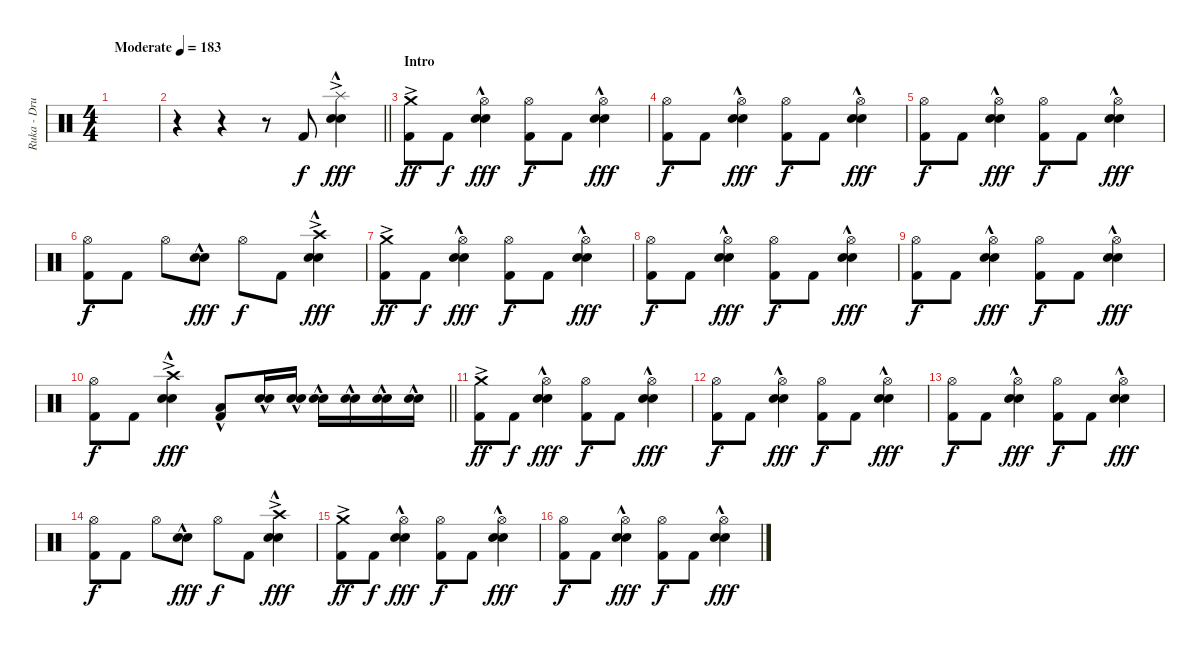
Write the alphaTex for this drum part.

\track ("Ruka - Drums" "Ruka - Dru") {instrument percussion}
\staff {score}
\articulation defaults
\ts (4 4)
\tempo (183 "Moderate")
\clef neutral
\ks c
|
\barLineRight lightlight
r.4 r.4 r.8 "Kick (hit) 2".8 ("Splash (hit)"{ac} "Electric Snare (hit)"{hac} "Snare (hit) 2"{hac}).4{dy fff} |
\section ("" "Intro")
("Crash medium (hit)"{ac} "Kick (hit) 2").8{dy ff} "Kick (hit) 2".8{dy f} ("Hi-Hat (open)" "Electric Snare (hit)"{hac} "Snare (hit) 2"{hac}).4{dy fff} ("Hi-Hat (open)" "Kick (hit) 2").8{dy f} "Kick (hit) 2".8 ("Hi-Hat (open)" "Electric Snare (hit)"{hac} "Snare (hit) 2"{hac}).4{dy fff} |
("Hi-Hat (open)" "Kick (hit) 2").8{dy f} "Kick (hit) 2".8 ("Hi-Hat (open)" "Electric Snare (hit)"{hac} "Snare (hit) 2"{hac}).4{dy fff} ("Hi-Hat (open)" "Kick (hit) 2").8{dy f} "Kick (hit) 2".8 ("Hi-Hat (open)" "Electric Snare (hit)"{hac} "Snare (hit) 2"{hac}).4{dy fff} |
("Hi-Hat (open)" "Kick (hit) 2").8{dy f} "Kick (hit) 2".8 ("Hi-Hat (open)" "Electric Snare (hit)"{hac} "Snare (hit) 2"{hac}).4{dy fff} ("Hi-Hat (open)" "Kick (hit) 2").8{dy f} "Kick (hit) 2".8 ("Hi-Hat (open)" "Electric Snare (hit)"{hac} "Snare (hit) 2"{hac}).4{dy fff} |
("Hi-Hat (open)" "Kick (hit) 2").8{dy f} "Kick (hit) 2".8 "Hi-Hat (open)".8 ("Electric Snare (hit)"{hac} "Snare (hit) 2"{hac}).8{dy fff} "Hi-Hat (open)".8{dy f} "Kick (hit) 2".8 ("Crash high (hit)"{ac} "Electric Snare (hit)"{hac} "Snare (hit) 2"{hac}).4{dy fff} |
("Crash medium (hit)"{ac} "Kick (hit) 2").8{dy ff} "Kick (hit) 2".8{dy f} ("Hi-Hat (open)" "Electric Snare (hit)"{hac} "Snare (hit) 2"{hac}).4{dy fff} ("Hi-Hat (open)" "Kick (hit) 2").8{dy f} "Kick (hit) 2".8 ("Hi-Hat (open)" "Electric Snare (hit)"{hac} "Snare (hit) 2"{hac}).4{dy fff} |
("Hi-Hat (open)" "Kick (hit) 2").8{dy f} "Kick (hit) 2".8 ("Hi-Hat (open)" "Electric Snare (hit)"{hac} "Snare (hit) 2"{hac}).4{dy fff} ("Hi-Hat (open)" "Kick (hit) 2").8{dy f} "Kick (hit) 2".8 ("Hi-Hat (open)" "Electric Snare (hit)"{hac} "Snare (hit) 2"{hac}).4{dy fff} |
("Hi-Hat (open)" "Kick (hit) 2").8{dy f} "Kick (hit) 2".8 ("Hi-Hat (open)" "Electric Snare (hit)"{hac} "Snare (hit) 2"{hac}).4{dy fff} ("Hi-Hat (open)" "Kick (hit) 2").8{dy f} "Kick (hit) 2".8 ("Hi-Hat (open)" "Electric Snare (hit)"{hac} "Snare (hit) 2"{hac}).4{dy fff} |
\barLineRight lightlight
("Hi-Hat (open)" "Kick (hit) 2").8{dy f} "Kick (hit) 2".8 ("Crash high (hit)"{ac} "Electric Snare (hit)"{hac} "Snare (hit) 2"{hac}).4{dy fff} ("Low Tom (hit)"{hac} "Kick (hit) 2").8 ("Electric Snare (hit)"{hac} "Snare (hit) 2"{hac}).16 ("Electric Snare (hit)"{hac} "Snare (hit) 2"{hac}).16 ("Electric Snare (hit)"{hac} "Snare (hit) 2"{hac}).16 ("Electric Snare (hit)"{hac} "Snare (hit) 2"{hac}).16 ("Electric Snare (hit)"{hac} "Snare (hit) 2"{hac}).16 ("Electric Snare (hit)"{hac} "Snare (hit) 2"{hac}).16 |
\section ("" "")
("Crash medium (hit)"{ac} "Kick (hit) 2").8{dy ff} "Kick (hit) 2".8{dy f} ("Hi-Hat (open)" "Electric Snare (hit)"{hac} "Snare (hit) 2"{hac}).4{dy fff} ("Hi-Hat (open)" "Kick (hit) 2").8{dy f} "Kick (hit) 2".8 ("Hi-Hat (open)" "Electric Snare (hit)"{hac} "Snare (hit) 2"{hac}).4{dy fff} |
("Hi-Hat (open)" "Kick (hit) 2").8{dy f} "Kick (hit) 2".8 ("Hi-Hat (open)" "Electric Snare (hit)"{hac} "Snare (hit) 2"{hac}).4{dy fff} ("Hi-Hat (open)" "Kick (hit) 2").8{dy f} "Kick (hit) 2".8 ("Hi-Hat (open)" "Electric Snare (hit)"{hac} "Snare (hit) 2"{hac}).4{dy fff} |
("Hi-Hat (open)" "Kick (hit) 2").8{dy f} "Kick (hit) 2".8 ("Hi-Hat (open)" "Electric Snare (hit)"{hac} "Snare (hit) 2"{hac}).4{dy fff} ("Hi-Hat (open)" "Kick (hit) 2").8{dy f} "Kick (hit) 2".8 ("Hi-Hat (open)" "Electric Snare (hit)"{hac} "Snare (hit) 2"{hac}).4{dy fff} |
("Hi-Hat (open)" "Kick (hit) 2").8{dy f} "Kick (hit) 2".8 "Hi-Hat (open)".8 ("Electric Snare (hit)"{hac} "Snare (hit) 2"{hac}).8{dy fff} "Hi-Hat (open)".8{dy f} "Kick (hit) 2".8 ("Crash high (hit)"{ac} "Electric Snare (hit)"{hac} "Snare (hit) 2"{hac}).4{dy fff} |
("Crash medium (hit)"{ac} "Kick (hit) 2").8{dy ff} "Kick (hit) 2".8{dy f} ("Hi-Hat (open)" "Electric Snare (hit)"{hac} "Snare (hit) 2"{hac}).4{dy fff} ("Hi-Hat (open)" "Kick (hit) 2").8{dy f} "Kick (hit) 2".8 ("Hi-Hat (open)" "Electric Snare (hit)"{hac} "Snare (hit) 2"{hac}).4{dy fff} |
("Hi-Hat (open)" "Kick (hit) 2").8{dy f} "Kick (hit) 2".8 ("Hi-Hat (open)" "Electric Snare (hit)"{hac} "Snare (hit) 2"{hac}).4{dy fff} ("Hi-Hat (open)" "Kick (hit) 2").8{dy f} "Kick (hit) 2".8 ("Hi-Hat (open)" "Electric Snare (hit)"{hac} "Snare (hit) 2"{hac}).4{dy fff}
